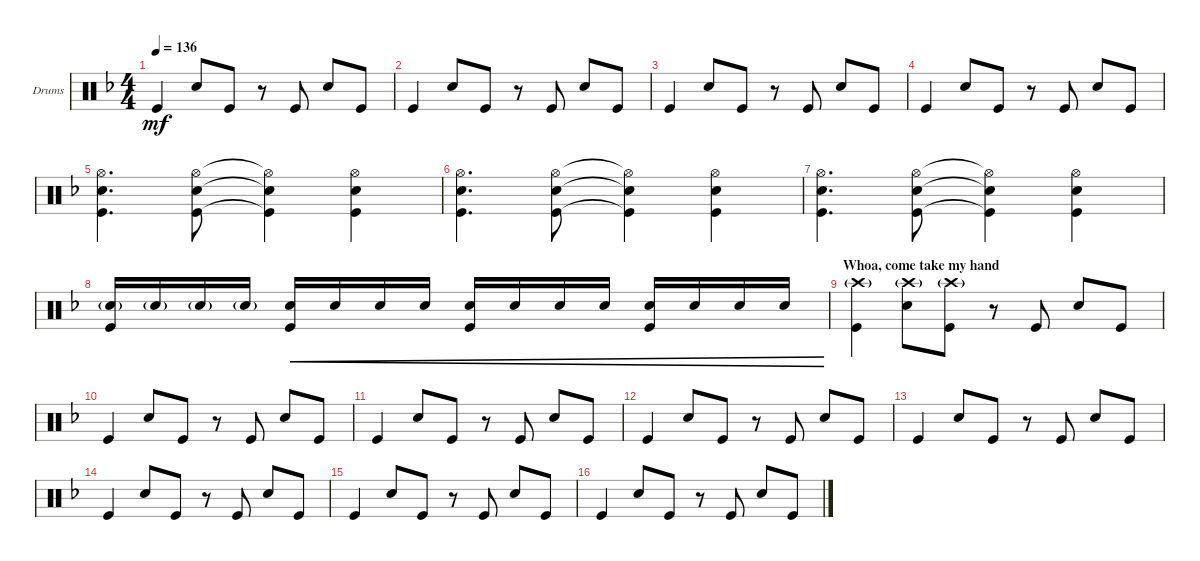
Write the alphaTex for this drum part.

\bracketExtendMode groupsimilarinstruments
\firstSystemTrackNameOrientation horizontal
\otherSystemsTrackNameOrientation horizontal
\track ("Drumkit" "Drums") {instrument percussion}
\staff {score}
\articulation defaults
\ts (4 4)
\tempo 136
\clef neutral
\scale
0.333333
\ks f "Kick (hit)".4{dy mf} "Snare (hit) 2".8 "Kick (hit)".8
r.8 "Kick (hit)".8 "Snare (hit) 2".8 "Kick (hit)".8 |
\scale
0.333333 "Kick (hit)".4 "Snare (hit) 2".8 "Kick (hit)".8 r.8 "Kick (hit)".8 "Snare (hit) 2".8 "Kick (hit)".8 |
\scale
0.333333 "Kick (hit)".4 "Snare (hit) 2".8 "Kick (hit)".8 r.8 "Kick (hit)".8 "Snare (hit) 2".8 "Kick (hit)".8 |
\scale
0.333333 "Kick (hit)".4 "Snare (hit) 2".8 "Kick (hit)".8 r.8 "Kick (hit)".8 "Snare (hit) 2".8 "Kick (hit)".8 |
\scale
0.333333 ("Kick (hit)" "Snare (hit) 2" "Hi-Hat (open)").4{d} ("Kick (hit)" "Snare (hit) 2" "Hi-Hat (open)").8 ("Kick (hit)"{t} "Snare (hit) 2"{t} "Hi-Hat (open)"{t}).4 ("Kick (hit)" "Snare (hit) 2" "Hi-Hat (open)").4 |
\scale
0.333333 ("Kick (hit)" "Snare (hit) 2" "Hi-Hat (open)").4{d} ("Kick (hit)" "Snare (hit) 2" "Hi-Hat (open)").8 ("Kick (hit)"{t} "Snare (hit) 2"{t} "Hi-Hat (open)"{t}).4 ("Kick (hit)" "Snare (hit) 2" "Hi-Hat (open)").4 |
\scale
0.333333 ("Kick (hit)" "Snare (hit) 2" "Hi-Hat (open)").4{d} ("Kick (hit)" "Snare (hit) 2" "Hi-Hat (open)").8 ("Kick (hit)"{t} "Snare (hit) 2"{t} "Hi-Hat (open)"{t}).4 ("Kick (hit)" "Snare (hit) 2" "Hi-Hat (open)").4 |
\scale
0.333333 ("Kick (hit)" "Snare (hit) 2"{g}).16 "Snare (hit) 2"{g}.16 "Snare (hit) 2"{g}.16 "Snare (hit) 2"{g}.16 ("Snare (hit) 2" "Kick (hit)").16{cre} "Snare (hit) 2".16{cre} "Snare (hit) 2".16{cre} "Snare (hit) 2".16{cre} ("Snare (hit) 2" "Kick (hit)").16{cre} "Snare (hit) 2".16{cre} "Snare (hit) 2".16{cre} "Snare (hit) 2".16{cre} ("Snare (hit) 2" "Kick (hit)").16{cre} "Snare (hit) 2".16{cre} "Snare (hit) 2".16{cre} "Snare (hit) 2".16{cre} |
\section ("" "Whoa, come take my hand")
\scale
0.333333 ("Kick (hit)" "Crash high (hit)"{g}).4 ("Snare (hit) 2" "Crash high (hit)"{g}).8 ("Kick (hit)" "Crash high (hit)"{g}).8 r.8 "Kick (hit)".8 "Snare (hit) 2".8 "Kick (hit)".8 |
\scale
0.333333 "Kick (hit)".4 "Snare (hit) 2".8 "Kick (hit)".8 r.8 "Kick (hit)".8 "Snare (hit) 2".8 "Kick (hit)".8 |
\scale
0.333333 "Kick (hit)".4 "Snare (hit) 2".8 "Kick (hit)".8 r.8 "Kick (hit)".8 "Snare (hit) 2".8 "Kick (hit)".8 |
\scale
0.333333 "Kick (hit)".4 "Snare (hit) 2".8 "Kick (hit)".8 r.8 "Kick (hit)".8 "Snare (hit) 2".8 "Kick (hit)".8 |
\scale
0.333333 "Kick (hit)".4 "Snare (hit) 2".8 "Kick (hit)".8 r.8 "Kick (hit)".8 "Snare (hit) 2".8 "Kick (hit)".8 |
\scale
0.333333 "Kick (hit)".4 "Snare (hit) 2".8 "Kick (hit)".8 r.8 "Kick (hit)".8 "Snare (hit) 2".8 "Kick (hit)".8 |
\scale
0.333333 "Kick (hit)".4 "Snare (hit) 2".8 "Kick (hit)".8 r.8 "Kick (hit)".8 "Snare (hit) 2".8 "Kick (hit)".8 |
\scale
0.333333 "Kick (hit)".4 "Snare (hit) 2".8 "Kick (hit)".8 r.8 "Kick (hit)".8 "Snare (hit) 2".8 "Kick (hit)".8
